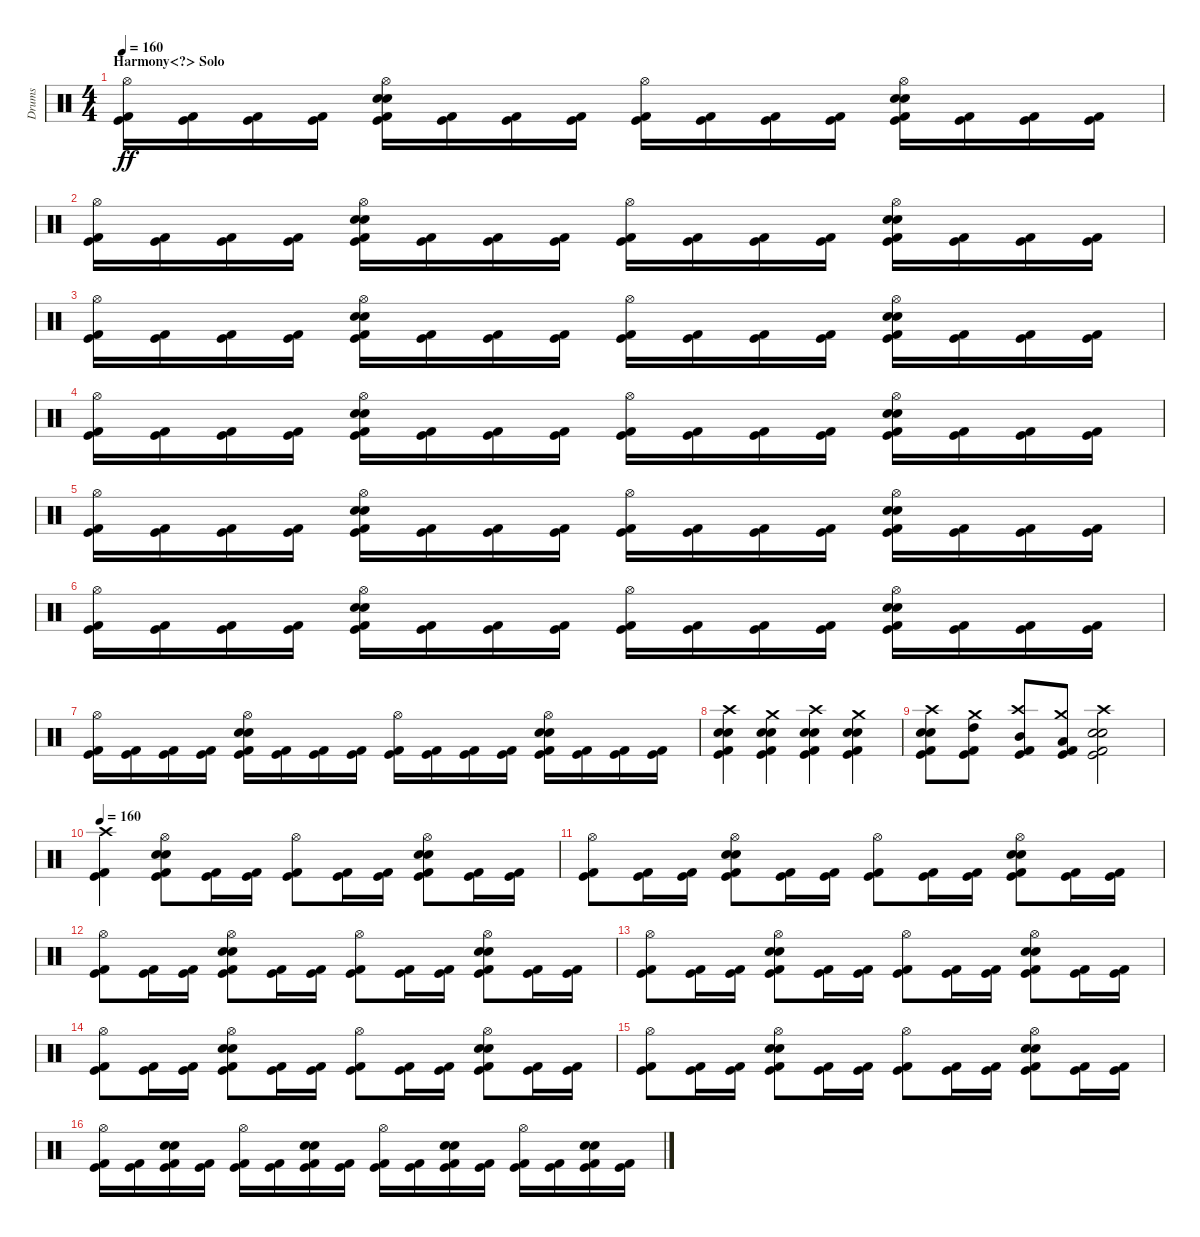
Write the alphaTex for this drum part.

\track ("Drums" "Drums") {instrument percussion}
\staff {score}
\articulation defaults
\ts (4 4)
\section ("" "Harmony<?> Solo")
\tempo 160
\clef neutral
\ks c
("Hi-Hat (open)" "Kick (hit) 2" "Kick (hit)").16{dy ff} ("Kick (hit) 2" "Kick (hit)").16 ("Kick (hit) 2" "Kick (hit)").16 ("Kick (hit) 2" "Kick (hit)").16 ("Hi-Hat (open)" "Snare (hit) 2" "Electric Snare (hit)" "Kick (hit) 2" "Kick (hit)").16 ("Kick (hit) 2" "Kick (hit)").16 ("Kick (hit) 2" "Kick (hit)").16 ("Kick (hit) 2" "Kick (hit)").16 ("Hi-Hat (open)" "Kick (hit) 2" "Kick (hit)").16 ("Kick (hit) 2" "Kick (hit)").16 ("Kick (hit) 2" "Kick (hit)").16 ("Kick (hit) 2" "Kick (hit)").16 ("Hi-Hat (open)" "Snare (hit) 2" "Electric Snare (hit)" "Kick (hit) 2" "Kick (hit)").16 ("Kick (hit) 2" "Kick (hit)").16 ("Kick (hit) 2" "Kick (hit)").16 ("Kick (hit) 2" "Kick (hit)").16 |
("Hi-Hat (open)" "Kick (hit) 2" "Kick (hit)").16 ("Kick (hit) 2" "Kick (hit)").16 ("Kick (hit) 2" "Kick (hit)").16 ("Kick (hit) 2" "Kick (hit)").16 ("Hi-Hat (open)" "Snare (hit) 2" "Electric Snare (hit)" "Kick (hit) 2" "Kick (hit)").16 ("Kick (hit) 2" "Kick (hit)").16 ("Kick (hit) 2" "Kick (hit)").16 ("Kick (hit) 2" "Kick (hit)").16 ("Hi-Hat (open)" "Kick (hit) 2" "Kick (hit)").16 ("Kick (hit) 2" "Kick (hit)").16 ("Kick (hit) 2" "Kick (hit)").16 ("Kick (hit) 2" "Kick (hit)").16 ("Hi-Hat (open)" "Snare (hit) 2" "Electric Snare (hit)" "Kick (hit) 2" "Kick (hit)").16 ("Kick (hit) 2" "Kick (hit)").16 ("Kick (hit) 2" "Kick (hit)").16 ("Kick (hit) 2" "Kick (hit)").16 |
("Hi-Hat (open)" "Kick (hit) 2" "Kick (hit)").16 ("Kick (hit) 2" "Kick (hit)").16 ("Kick (hit) 2" "Kick (hit)").16 ("Kick (hit) 2" "Kick (hit)").16 ("Hi-Hat (open)" "Snare (hit) 2" "Electric Snare (hit)" "Kick (hit) 2" "Kick (hit)").16 ("Kick (hit) 2" "Kick (hit)").16 ("Kick (hit) 2" "Kick (hit)").16 ("Kick (hit) 2" "Kick (hit)").16 ("Hi-Hat (open)" "Kick (hit) 2" "Kick (hit)").16 ("Kick (hit) 2" "Kick (hit)").16 ("Kick (hit) 2" "Kick (hit)").16 ("Kick (hit) 2" "Kick (hit)").16 ("Hi-Hat (open)" "Snare (hit) 2" "Electric Snare (hit)" "Kick (hit) 2" "Kick (hit)").16 ("Kick (hit) 2" "Kick (hit)").16 ("Kick (hit) 2" "Kick (hit)").16 ("Kick (hit) 2" "Kick (hit)").16 |
("Hi-Hat (open)" "Kick (hit) 2" "Kick (hit)").16 ("Kick (hit) 2" "Kick (hit)").16 ("Kick (hit) 2" "Kick (hit)").16 ("Kick (hit) 2" "Kick (hit)").16 ("Hi-Hat (open)" "Snare (hit) 2" "Electric Snare (hit)" "Kick (hit) 2" "Kick (hit)").16 ("Kick (hit) 2" "Kick (hit)").16 ("Kick (hit) 2" "Kick (hit)").16 ("Kick (hit) 2" "Kick (hit)").16 ("Hi-Hat (open)" "Kick (hit) 2" "Kick (hit)").16 ("Kick (hit) 2" "Kick (hit)").16 ("Kick (hit) 2" "Kick (hit)").16 ("Kick (hit) 2" "Kick (hit)").16 ("Hi-Hat (open)" "Snare (hit) 2" "Electric Snare (hit)" "Kick (hit) 2" "Kick (hit)").16 ("Kick (hit) 2" "Kick (hit)").16 ("Kick (hit) 2" "Kick (hit)").16 ("Kick (hit) 2" "Kick (hit)").16 |
("Hi-Hat (open)" "Kick (hit) 2" "Kick (hit)").16 ("Kick (hit) 2" "Kick (hit)").16 ("Kick (hit) 2" "Kick (hit)").16 ("Kick (hit) 2" "Kick (hit)").16 ("Hi-Hat (open)" "Snare (hit) 2" "Electric Snare (hit)" "Kick (hit) 2" "Kick (hit)").16 ("Kick (hit) 2" "Kick (hit)").16 ("Kick (hit) 2" "Kick (hit)").16 ("Kick (hit) 2" "Kick (hit)").16 ("Hi-Hat (open)" "Kick (hit) 2" "Kick (hit)").16 ("Kick (hit) 2" "Kick (hit)").16 ("Kick (hit) 2" "Kick (hit)").16 ("Kick (hit) 2" "Kick (hit)").16 ("Hi-Hat (open)" "Snare (hit) 2" "Electric Snare (hit)" "Kick (hit) 2" "Kick (hit)").16 ("Kick (hit) 2" "Kick (hit)").16 ("Kick (hit) 2" "Kick (hit)").16 ("Kick (hit) 2" "Kick (hit)").16 |
("Hi-Hat (open)" "Kick (hit) 2" "Kick (hit)").16 ("Kick (hit) 2" "Kick (hit)").16 ("Kick (hit) 2" "Kick (hit)").16 ("Kick (hit) 2" "Kick (hit)").16 ("Hi-Hat (open)" "Snare (hit) 2" "Electric Snare (hit)" "Kick (hit) 2" "Kick (hit)").16 ("Kick (hit) 2" "Kick (hit)").16 ("Kick (hit) 2" "Kick (hit)").16 ("Kick (hit) 2" "Kick (hit)").16 ("Hi-Hat (open)" "Kick (hit) 2" "Kick (hit)").16 ("Kick (hit) 2" "Kick (hit)").16 ("Kick (hit) 2" "Kick (hit)").16 ("Kick (hit) 2" "Kick (hit)").16 ("Hi-Hat (open)" "Snare (hit) 2" "Electric Snare (hit)" "Kick (hit) 2" "Kick (hit)").16 ("Kick (hit) 2" "Kick (hit)").16 ("Kick (hit) 2" "Kick (hit)").16 ("Kick (hit) 2" "Kick (hit)").16 |
("Hi-Hat (open)" "Kick (hit) 2" "Kick (hit)").16 ("Kick (hit) 2" "Kick (hit)").16 ("Kick (hit) 2" "Kick (hit)").16 ("Kick (hit) 2" "Kick (hit)").16 ("Hi-Hat (open)" "Snare (hit) 2" "Electric Snare (hit)" "Kick (hit) 2" "Kick (hit)").16 ("Kick (hit) 2" "Kick (hit)").16 ("Kick (hit) 2" "Kick (hit)").16 ("Kick (hit) 2" "Kick (hit)").16 ("Hi-Hat (open)" "Kick (hit) 2" "Kick (hit)").16 ("Kick (hit) 2" "Kick (hit)").16 ("Kick (hit) 2" "Kick (hit)").16 ("Kick (hit) 2" "Kick (hit)").16 ("Hi-Hat (open)" "Snare (hit) 2" "Electric Snare (hit)" "Kick (hit) 2" "Kick (hit)").16 ("Kick (hit) 2" "Kick (hit)").16 ("Kick (hit) 2" "Kick (hit)").16 ("Kick (hit) 2" "Kick (hit)").16 |
("Crash high (hit)" "Snare (hit) 2" "Electric Snare (hit)" "Kick (hit) 2" "Kick (hit)").4 ("Crash medium (hit)" "Snare (hit) 2" "Electric Snare (hit)" "Kick (hit) 2" "Kick (hit)").4 ("Crash high (hit)" "Snare (hit) 2" "Electric Snare (hit)" "Kick (hit) 2" "Kick (hit)").4 ("Crash medium (hit)" "Snare (hit) 2" "Electric Snare (hit)" "Kick (hit) 2" "Kick (hit)").4 |
("Crash high (hit)" "Snare (hit) 2" "Electric Snare (hit)" "Kick (hit) 2" "Kick (hit)").8 ("Crash medium (hit)" "High Tom (hit)" "Kick (hit) 2" "Kick (hit)").8 ("Crash high (hit)" "Mid Tom (hit)" "Kick (hit) 2" "Kick (hit)").8 ("Crash medium (hit)" "Low Tom (hit)" "Kick (hit) 2" "Kick (hit)").8 ("Crash high (hit)" "Snare (hit) 2" "Electric Snare (hit)" "Kick (hit) 2" "Kick (hit)").2 |
\tempo 160
("Crash high (hit)" "Kick (hit) 2" "Kick (hit)").4 ("Hi-Hat (open)" "Electric Snare (hit)" "Snare (hit) 2" "Kick (hit) 2" "Kick (hit)").8 ("Kick (hit) 2" "Kick (hit)").16 ("Kick (hit) 2" "Kick (hit)").16 ("Hi-Hat (open)" "Kick (hit) 2" "Kick (hit)").8 ("Kick (hit) 2" "Kick (hit)").16 ("Kick (hit) 2" "Kick (hit)").16 ("Hi-Hat (open)" "Electric Snare (hit)" "Snare (hit) 2" "Kick (hit) 2" "Kick (hit)").8 ("Kick (hit) 2" "Kick (hit)").16 ("Kick (hit) 2" "Kick (hit)").16 |
("Hi-Hat (open)" "Kick (hit) 2" "Kick (hit)").8 ("Kick (hit) 2" "Kick (hit)").16 ("Kick (hit) 2" "Kick (hit)").16 ("Hi-Hat (open)" "Electric Snare (hit)" "Snare (hit) 2" "Kick (hit) 2" "Kick (hit)").8 ("Kick (hit) 2" "Kick (hit)").16 ("Kick (hit) 2" "Kick (hit)").16 ("Hi-Hat (open)" "Kick (hit) 2" "Kick (hit)").8 ("Kick (hit) 2" "Kick (hit)").16 ("Kick (hit) 2" "Kick (hit)").16 ("Hi-Hat (open)" "Electric Snare (hit)" "Snare (hit) 2" "Kick (hit) 2" "Kick (hit)").8 ("Kick (hit) 2" "Kick (hit)").16 ("Kick (hit) 2" "Kick (hit)").16 |
("Hi-Hat (open)" "Kick (hit) 2" "Kick (hit)").8 ("Kick (hit) 2" "Kick (hit)").16 ("Kick (hit) 2" "Kick (hit)").16 ("Hi-Hat (open)" "Electric Snare (hit)" "Snare (hit) 2" "Kick (hit) 2" "Kick (hit)").8 ("Kick (hit) 2" "Kick (hit)").16 ("Kick (hit) 2" "Kick (hit)").16 ("Hi-Hat (open)" "Kick (hit) 2" "Kick (hit)").8 ("Kick (hit) 2" "Kick (hit)").16 ("Kick (hit) 2" "Kick (hit)").16 ("Hi-Hat (open)" "Electric Snare (hit)" "Snare (hit) 2" "Kick (hit) 2" "Kick (hit)").8 ("Kick (hit) 2" "Kick (hit)").16 ("Kick (hit) 2" "Kick (hit)").16 |
("Hi-Hat (open)" "Kick (hit) 2" "Kick (hit)").8 ("Kick (hit) 2" "Kick (hit)").16 ("Kick (hit) 2" "Kick (hit)").16 ("Hi-Hat (open)" "Electric Snare (hit)" "Snare (hit) 2" "Kick (hit) 2" "Kick (hit)").8 ("Kick (hit) 2" "Kick (hit)").16 ("Kick (hit) 2" "Kick (hit)").16 ("Hi-Hat (open)" "Kick (hit) 2" "Kick (hit)").8 ("Kick (hit) 2" "Kick (hit)").16 ("Kick (hit) 2" "Kick (hit)").16 ("Hi-Hat (open)" "Electric Snare (hit)" "Snare (hit) 2" "Kick (hit) 2" "Kick (hit)").8 ("Kick (hit) 2" "Kick (hit)").16 ("Kick (hit) 2" "Kick (hit)").16 |
("Hi-Hat (open)" "Kick (hit) 2" "Kick (hit)").8 ("Kick (hit) 2" "Kick (hit)").16 ("Kick (hit) 2" "Kick (hit)").16 ("Hi-Hat (open)" "Electric Snare (hit)" "Snare (hit) 2" "Kick (hit) 2" "Kick (hit)").8 ("Kick (hit) 2" "Kick (hit)").16 ("Kick (hit) 2" "Kick (hit)").16 ("Hi-Hat (open)" "Kick (hit) 2" "Kick (hit)").8 ("Kick (hit) 2" "Kick (hit)").16 ("Kick (hit) 2" "Kick (hit)").16 ("Hi-Hat (open)" "Electric Snare (hit)" "Snare (hit) 2" "Kick (hit) 2" "Kick (hit)").8 ("Kick (hit) 2" "Kick (hit)").16 ("Kick (hit) 2" "Kick (hit)").16 |
("Hi-Hat (open)" "Kick (hit) 2" "Kick (hit)").8 ("Kick (hit) 2" "Kick (hit)").16 ("Kick (hit) 2" "Kick (hit)").16 ("Hi-Hat (open)" "Electric Snare (hit)" "Snare (hit) 2" "Kick (hit) 2" "Kick (hit)").8 ("Kick (hit) 2" "Kick (hit)").16 ("Kick (hit) 2" "Kick (hit)").16 ("Hi-Hat (open)" "Kick (hit) 2" "Kick (hit)").8 ("Kick (hit) 2" "Kick (hit)").16 ("Kick (hit) 2" "Kick (hit)").16 ("Hi-Hat (open)" "Electric Snare (hit)" "Snare (hit) 2" "Kick (hit) 2" "Kick (hit)").8 ("Kick (hit) 2" "Kick (hit)").16 ("Kick (hit) 2" "Kick (hit)").16 |
("Hi-Hat (open)" "Kick (hit) 2" "Kick (hit)").16 ("Kick (hit) 2" "Kick (hit)").16 ("Electric Snare (hit)" "Snare (hit) 2" "Kick (hit) 2" "Kick (hit)").16 ("Kick (hit) 2" "Kick (hit)").16 ("Hi-Hat (open)" "Kick (hit) 2" "Kick (hit)").16 ("Kick (hit) 2" "Kick (hit)").16 ("Electric Snare (hit)" "Snare (hit) 2" "Kick (hit) 2" "Kick (hit)").16 ("Kick (hit) 2" "Kick (hit)").16 ("Hi-Hat (open)" "Kick (hit) 2" "Kick (hit)").16 ("Kick (hit) 2" "Kick (hit)").16 ("Electric Snare (hit)" "Snare (hit) 2" "Kick (hit) 2" "Kick (hit)").16 ("Kick (hit) 2" "Kick (hit)").16 ("Hi-Hat (open)" "Kick (hit) 2" "Kick (hit)").16 ("Kick (hit) 2" "Kick (hit)").16 ("Electric Snare (hit)" "Snare (hit) 2" "Kick (hit) 2" "Kick (hit)").16 ("Kick (hit) 2" "Kick (hit)").16
